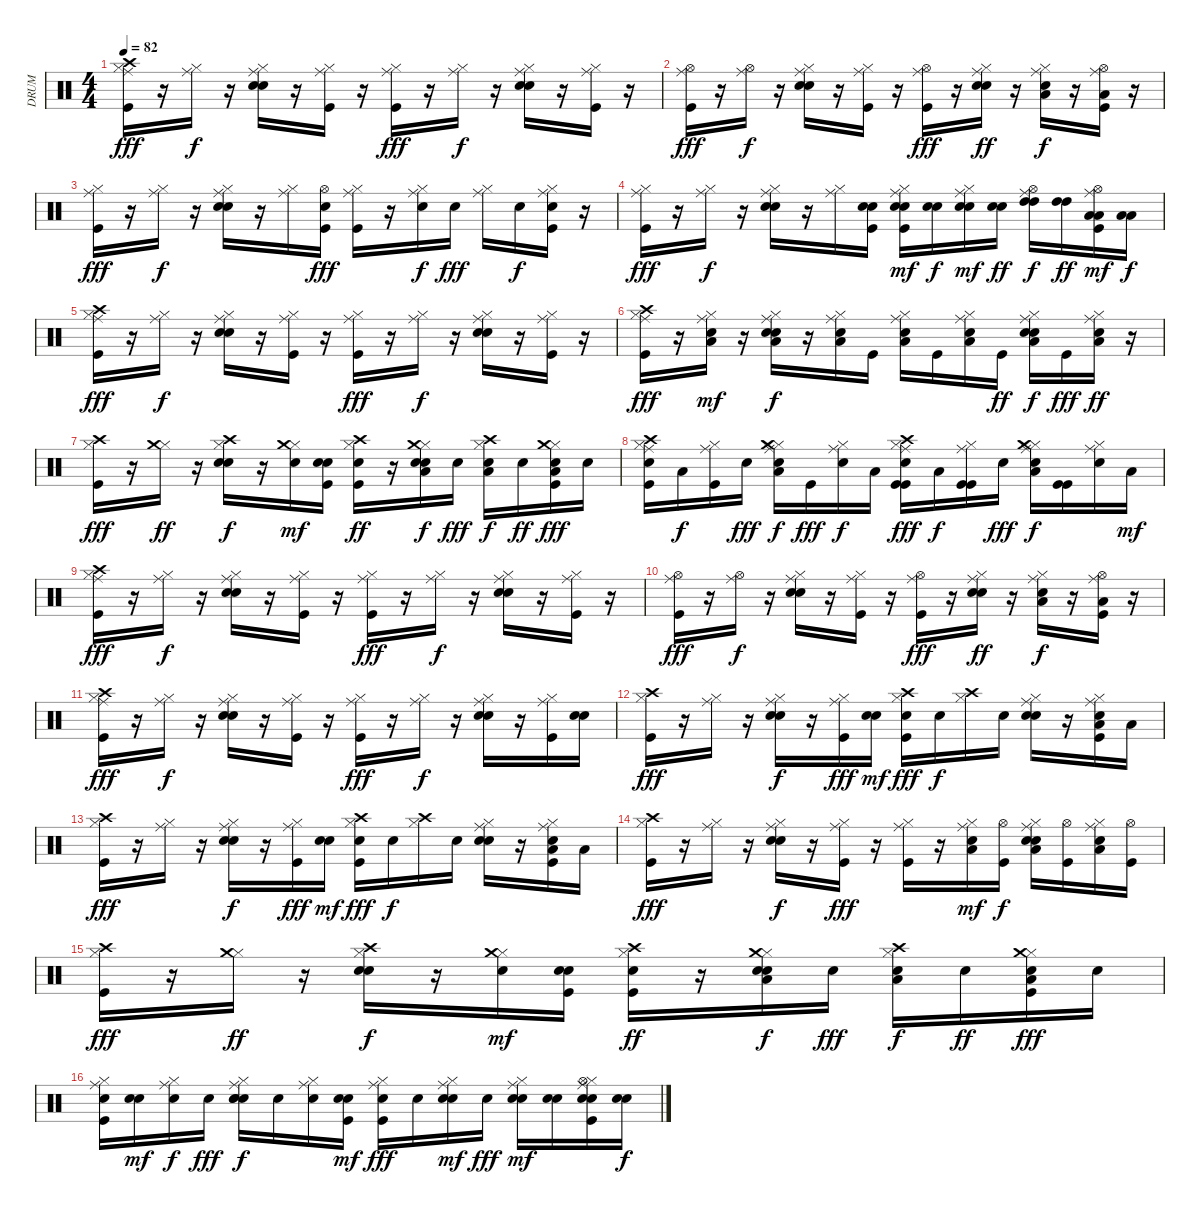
\track ("DRUM" "DRUM") {instrument percussion}
\staff {score}
\articulation defaults
\ts (4 4)
\tempo 82
\clef neutral
\ks c
("Kick (hit)" "Hi-Hat (closed)" "Ride (middle)" "Crash high (hit)").16{dy fff} r.16 ("Hi-Hat (closed)" "Ride (middle)").16{dy f} r.16 ("Snare (hit) 2" "Hi-Hat (closed)" "Ride (middle)" "Hand Clap (hit)").16 r.16 ("Kick (hit)" "Hi-Hat (closed)" "Ride (middle)").16 r.16 ("Kick (hit)" "Hi-Hat (closed)" "Ride (middle)").16{dy fff} r.16 ("Hi-Hat (closed)" "Ride (middle)").16{dy f} r.16 ("Snare (hit) 2" "Hi-Hat (closed)" "Ride (middle)" "Hand Clap (hit)").16 r.16 ("Kick (hit)" "Hi-Hat (closed)" "Ride (middle)").16 r.16 |
("Kick (hit)" "Hi-Hat (open)" "Ride (middle)").16{dy fff} r.16 ("Hi-Hat (open)" "Ride (middle)").16{dy f} r.16 ("Snare (hit) 2" "Hi-Hat (closed)" "Ride (middle)" "Hand Clap (hit)").16 r.16 ("Kick (hit)" "Hi-Hat (closed)" "Ride (middle)").16 r.16 ("Kick (hit)" "Hi-Hat (open)" "Ride (middle)").16{dy fff} r.16 ("Snare (hit) 2" "Hi-Hat (closed)" "Ride (middle)" "Snare (hit) 2").16{dy ff} r.16 ("Hi-Hat (closed)" "Ride (middle)" "Low Tom (hit)" "Hand Clap (hit)").16{dy f} r.16 ("Kick (hit)" "Hi-Hat (open)" "Ride (middle)" "Low Floor Tom (hit)").16 r.16 |
("Kick (hit)" "Hi-Hat (closed)" "Ride (middle)").16{dy fff} r.16 ("Hi-Hat (closed)" "Ride (middle)").16{dy f} r.16 ("Snare (hit) 2" "Hi-Hat (closed)" "Ride (middle)" "Hand Clap (hit)").16 r.16 ("Hi-Hat (closed)" "Ride (middle)").16 ("Kick (hit)" "Snare (hit) 2" "Hi-Hat (open)").16{dy fff} ("Kick (hit)" "Hi-Hat (closed)" "Ride (middle)").16 r.16 ("Snare (hit) 2" "Hi-Hat (closed)" "Ride (middle)").16{dy f} "Snare (hit) 2".16{dy fff} ("Hi-Hat (closed)" "Ride (middle)").16 "Snare (hit) 2".16{dy f} ("Kick (hit)" "Snare (hit) 2" "Hi-Hat (closed)" "Ride (middle)").16 r.16 |
("Kick (hit)" "Hi-Hat (closed)" "Ride (middle)").16{dy fff} r.16 ("Hi-Hat (closed)" "Ride (middle)").16{dy f} r.16 ("Snare (hit) 2" "Hi-Hat (closed)" "Ride (middle)" "Hand Clap (hit)").16 r.16 ("Hi-Hat (closed)" "Ride (middle)").16 ("Kick (hit)" "Snare (hit) 2" "Snare (hit) 2").16 ("Kick (hit)" "Snare (hit) 2" "Hi-Hat (closed)" "Ride (middle)" "Snare (hit) 2").16{dy mf} ("Snare (hit) 2" "Snare (hit) 2").16{dy f} ("Snare (hit) 2" "Hi-Hat (closed)" "Ride (middle)" "Snare (hit) 2").16{dy mf} ("Snare (hit) 2" "Snare (hit) 2").16{dy ff} ("Hi-Hat (open)" "Ride (middle)" "High Tom (hit)" "High Tom (hit)").16{dy f} ("High Tom (hit)" "High Tom (hit)").16{dy ff} ("Kick (hit)" "Hi-Hat (open)" "Ride (middle)" "Low Tom (hit)" "Low Tom (hit)").16{dy mf} ("Low Tom (hit)" "Low Floor Tom (hit)").16{dy f} |
("Kick (hit)" "Hi-Hat (closed)" "Ride (middle)" "Crash high (hit)").16{dy fff} r.16 ("Hi-Hat (closed)" "Ride (middle)").16{dy f} r.16 ("Snare (hit) 2" "Hi-Hat (closed)" "Ride (middle)" "Hand Clap (hit)").16 r.16 ("Kick (hit)" "Hi-Hat (closed)" "Ride (middle)").16 r.16 ("Kick (hit)" "Hi-Hat (closed)" "Ride (middle)").16{dy fff} r.16 ("Hi-Hat (closed)" "Ride (middle)").16{dy f} r.16 ("Snare (hit) 2" "Hi-Hat (closed)" "Ride (middle)" "Hand Clap (hit)").16 r.16 ("Kick (hit)" "Hi-Hat (closed)" "Ride (middle)").16 r.16 |
("Kick (hit)" "Hi-Hat (closed)" "Ride (middle)" "Crash high (hit)").16{dy fff} r.16 ("Snare (hit) 2" "Hi-Hat (closed)" "Ride (middle)" "Low Floor Tom (hit)").16{dy mf} r.16 ("Snare (hit) 2" "Hi-Hat (closed)" "Ride (middle)" "Low Floor Tom (hit)" "Hand Clap (hit)").16{dy f} r.16 ("Snare (hit) 2" "Hi-Hat (closed)" "Ride (middle)" "Low Floor Tom (hit)").16 "Kick (hit)".16 ("Snare (hit) 2" "Hi-Hat (closed)" "Ride (middle)" "Low Floor Tom (hit)").16 "Kick (hit)".16 ("Snare (hit) 2" "Hi-Hat (closed)" "Ride (middle)" "Low Floor Tom (hit)").16 "Kick (hit)".16{dy ff} ("Snare (hit) 2" "Hi-Hat (closed)" "Ride (middle)" "Low Floor Tom (hit)" "Hand Clap (hit)").16{dy f} "Kick (hit)".16{dy fff} ("Snare (hit) 2" "Hi-Hat (closed)" "Ride (middle)" "Low Floor Tom (hit)").16{dy ff} r.16 |
("Kick (hit)" "Hi-Hat (closed)" "Crash high (hit)").16{dy fff} r.16 ("Hi-Hat (closed)" "Crash medium (hit)").16{dy ff} r.16 ("Snare (hit) 2" "Hi-Hat (closed)" "Crash high (hit)" "Hand Clap (hit)").16{dy f} r.16 ("Hi-Hat (closed)" "Crash medium (hit)" "Snare (hit) 2").16{dy mf} ("Kick (hit)" "Snare (hit) 2" "Snare (hit) 2").16 ("Kick (hit)" "Snare (hit) 2" "Hi-Hat (closed)" "Crash high (hit)").16{dy ff} r.16 ("Snare (hit) 2" "Hi-Hat (closed)" "Crash medium (hit)" "Low Floor Tom (hit)" "Snare (hit) 2").16{dy f} "Snare (hit) 2".16{dy fff} ("Snare (hit) 2" "Hi-Hat (closed)" "Crash high (hit)" "Low Floor Tom (hit)").16{dy f} "Snare (hit) 2".16{dy ff} ("Kick (hit)" "Snare (hit) 2" "Hi-Hat (closed)" "Crash medium (hit)" "Low Floor Tom (hit)").16{dy fff} "Snare (hit) 2".16 |
("Kick (hit)" "Snare (hit) 2" "Hi-Hat (closed)" "Ride (middle)" "Crash high (hit)").16 "Low Floor Tom (hit)".16{dy f} ("Kick (hit)" "Hi-Hat (closed)" "Ride (middle)").16 "Snare (hit) 2".16{dy fff} ("Hi-Hat (closed)" "Ride (middle)" "Crash medium (hit)" "Low Floor Tom (hit)" "Hand Clap (hit)").16{dy f} "Kick (hit)".16{dy fff} ("Snare (hit) 2" "Hi-Hat (closed)" "Ride (middle)").16{dy f} "Low Floor Tom (hit)".16 ("Kick (hit)" "Snare (hit) 2" "Hi-Hat (closed)" "Ride (middle)" "Crash high (hit)" "Kick (hit)").16{dy fff} "Low Floor Tom (hit)".16{dy f} ("Kick (hit)" "Hi-Hat (closed)" "Ride (middle)" "Kick (hit)").16 "Snare (hit) 2".16{dy fff} ("Hi-Hat (closed)" "Ride (middle)" "Crash medium (hit)" "Low Floor Tom (hit)" "Hand Clap (hit)").16{dy f} ("Kick (hit)" "Kick (hit)").16 ("Snare (hit) 2" "Hi-Hat (closed)" "Ride (middle)").16 "Low Floor Tom (hit)".16{dy mf} |
("Kick (hit)" "Hi-Hat (closed)" "Ride (middle)" "Crash high (hit)").16{dy fff} r.16 ("Hi-Hat (closed)" "Ride (middle)").16{dy f} r.16 ("Snare (hit) 2" "Hi-Hat (closed)" "Ride (middle)" "Hand Clap (hit)").16 r.16 ("Kick (hit)" "Hi-Hat (closed)" "Ride (middle)").16 r.16 ("Kick (hit)" "Hi-Hat (closed)" "Ride (middle)").16{dy fff} r.16 ("Hi-Hat (closed)" "Ride (middle)").16{dy f} r.16 ("Snare (hit) 2" "Hi-Hat (closed)" "Ride (middle)" "Hand Clap (hit)").16 r.16 ("Kick (hit)" "Hi-Hat (closed)" "Ride (middle)").16 r.16 |
("Kick (hit)" "Hi-Hat (open)" "Ride (middle)").16{dy fff} r.16 ("Hi-Hat (open)" "Ride (middle)").16{dy f} r.16 ("Snare (hit) 2" "Hi-Hat (closed)" "Ride (middle)" "Hand Clap (hit)").16 r.16 ("Kick (hit)" "Hi-Hat (closed)" "Ride (middle)").16 r.16 ("Kick (hit)" "Hi-Hat (open)" "Ride (middle)").16{dy fff} r.16 ("Snare (hit) 2" "Hi-Hat (closed)" "Ride (middle)" "Snare (hit) 2").16{dy ff} r.16 ("Hi-Hat (closed)" "Ride (middle)" "Low Tom (hit)" "Hand Clap (hit)").16{dy f} r.16 ("Kick (hit)" "Hi-Hat (open)" "Ride (middle)" "Low Floor Tom (hit)").16 r.16 |
("Kick (hit)" "Hi-Hat (closed)" "Ride (middle)" "Crash high (hit)").16{dy fff} r.16 ("Hi-Hat (closed)" "Ride (middle)").16{dy f} r.16 ("Snare (hit) 2" "Hi-Hat (closed)" "Ride (middle)" "Hand Clap (hit)").16 r.16 ("Kick (hit)" "Hi-Hat (closed)" "Ride (middle)").16 r.16 ("Kick (hit)" "Hi-Hat (closed)" "Ride (middle)").16{dy fff} r.16 ("Hi-Hat (closed)" "Ride (middle)").16{dy f} r.16 ("Snare (hit) 2" "Hi-Hat (closed)" "Ride (middle)" "Hand Clap (hit)").16 r.16 ("Kick (hit)" "Hi-Hat (closed)" "Ride (middle)").16 ("Snare (hit) 2" "Snare (hit) 2").16 |
("Kick (hit)" "Hi-Hat (closed)" "Crash high (hit)").16{dy fff} r.16 ("Hi-Hat (closed)" "Ride (middle)").16 r.16 ("Snare (hit) 2" "Hi-Hat (closed)" "Ride (middle)" "Hand Clap (hit)").16{dy f} r.16 ("Kick (hit)" "Hi-Hat (closed)" "Ride (middle)").16{dy fff} ("Snare (hit) 2" "Snare (hit) 2").16{dy mf} ("Kick (hit)" "Snare (hit) 2" "Hi-Hat (closed)" "Crash high (hit)").16{dy fff} "Snare (hit) 2".16{dy f} ("Hi-Hat (closed)" "Crash high (hit)").16 "Snare (hit) 2".16 ("Snare (hit) 2" "Hi-Hat (closed)" "Ride (middle)" "Hand Clap (hit)").16 r.16 ("Snare (hit) 2" "Kick (hit)" "Hi-Hat (closed)" "Ride (middle)" "Low Tom (hit)").16 "Low Floor Tom (hit)".16 |
("Kick (hit)" "Hi-Hat (closed)" "Crash high (hit)").16{dy fff} r.16 ("Hi-Hat (closed)" "Ride (middle)").16 r.16 ("Snare (hit) 2" "Hi-Hat (closed)" "Ride (middle)" "Hand Clap (hit)").16{dy f} r.16 ("Kick (hit)" "Hi-Hat (closed)" "Ride (middle)").16{dy fff} ("Snare (hit) 2" "Snare (hit) 2").16{dy mf} ("Kick (hit)" "Snare (hit) 2" "Hi-Hat (closed)" "Crash high (hit)").16{dy fff} "Snare (hit) 2".16{dy f} ("Hi-Hat (closed)" "Crash high (hit)").16 "Snare (hit) 2".16 ("Snare (hit) 2" "Hi-Hat (closed)" "Ride (middle)" "Hand Clap (hit)").16 r.16 ("Snare (hit) 2" "Kick (hit)" "Hi-Hat (closed)" "Ride (middle)" "Low Tom (hit)").16 "Low Floor Tom (hit)".16 |
("Kick (hit)" "Hi-Hat (closed)" "Crash high (hit)").16{dy fff} r.16 ("Hi-Hat (closed)" "Ride (middle)").16 r.16 ("Snare (hit) 2" "Hi-Hat (closed)" "Ride (middle)" "Hand Clap (hit)").16{dy f} r.16 ("Kick (hit)" "Hi-Hat (closed)" "Ride (middle)").16{dy fff} r.16 ("Kick (hit)" "Hi-Hat (closed)" "Ride (middle)").16 r.16 ("Snare (hit) 2" "Hi-Hat (closed)" "Ride (middle)" "Low Floor Tom (hit)").16{dy mf} ("Kick (hit)" "Hi-Hat (open)").16{dy f} ("Snare (hit) 2" "Hi-Hat (closed)" "Ride (middle)" "Low Floor Tom (hit)" "Hand Clap (hit)").16 ("Kick (hit)" "Hi-Hat (open)").16 ("Snare (hit) 2" "Hi-Hat (closed)" "Ride (middle)" "Low Floor Tom (hit)").16 ("Kick (hit)" "Hi-Hat (open)").16 |
("Kick (hit)" "Hi-Hat (closed)" "Crash high (hit)").16{dy fff} r.16 ("Hi-Hat (closed)" "Crash medium (hit)").16{dy ff} r.16 ("Snare (hit) 2" "Hi-Hat (closed)" "Crash high (hit)" "Hand Clap (hit)").16{dy f} r.16 ("Hi-Hat (closed)" "Crash medium (hit)" "Snare (hit) 2").16{dy mf} ("Kick (hit)" "Snare (hit) 2" "Snare (hit) 2").16 ("Kick (hit)" "Snare (hit) 2" "Hi-Hat (closed)" "Crash high (hit)").16{dy ff} r.16 ("Snare (hit) 2" "Hi-Hat (closed)" "Crash medium (hit)" "Low Floor Tom (hit)" "Snare (hit) 2").16{dy f} "Snare (hit) 2".16{dy fff} ("Snare (hit) 2" "Hi-Hat (closed)" "Crash high (hit)" "Low Floor Tom (hit)").16{dy f} "Snare (hit) 2".16{dy ff} ("Kick (hit)" "Snare (hit) 2" "Hi-Hat (closed)" "Crash medium (hit)" "Low Floor Tom (hit)").16{dy fff} "Snare (hit) 2".16 |
("Kick (hit)" "Snare (hit) 2" "Hi-Hat (closed)" "Ride (middle)").16 ("Snare (hit) 2" "Snare (hit) 2").16{dy mf} ("Snare (hit) 2" "Hi-Hat (closed)" "Ride (middle)").16{dy f} "Snare (hit) 2".16{dy fff} ("Snare (hit) 2" "Hi-Hat (closed)" "Ride (middle)" "Hand Clap (hit)" "Snare (hit) 2").16{dy f} "Snare (hit) 2".16 ("Snare (hit) 2" "Hi-Hat (closed)" "Ride (middle)").16 ("Kick (hit)" "Snare (hit) 2" "Snare (hit) 2").16{dy mf} ("Kick (hit)" "Snare (hit) 2" "Hi-Hat (closed)" "Ride (middle)").16{dy fff} "Snare (hit) 2".16 ("Snare (hit) 2" "Hi-Hat (closed)" "Ride (middle)" "Snare (hit) 2").16{dy mf} "Snare (hit) 2".16{dy fff} ("Snare (hit) 2" "Hi-Hat (closed)" "Ride (middle)" "Snare (hit) 2").16{dy mf} ("Snare (hit) 2" "Snare (hit) 2").16 ("Kick (hit)" "Snare (hit) 2" "Hi-Hat (closed)" "Hi-Hat (open)" "Ride (middle)" "Snare (hit) 2").16 ("Snare (hit) 2" "Snare (hit) 2").16{dy f}
